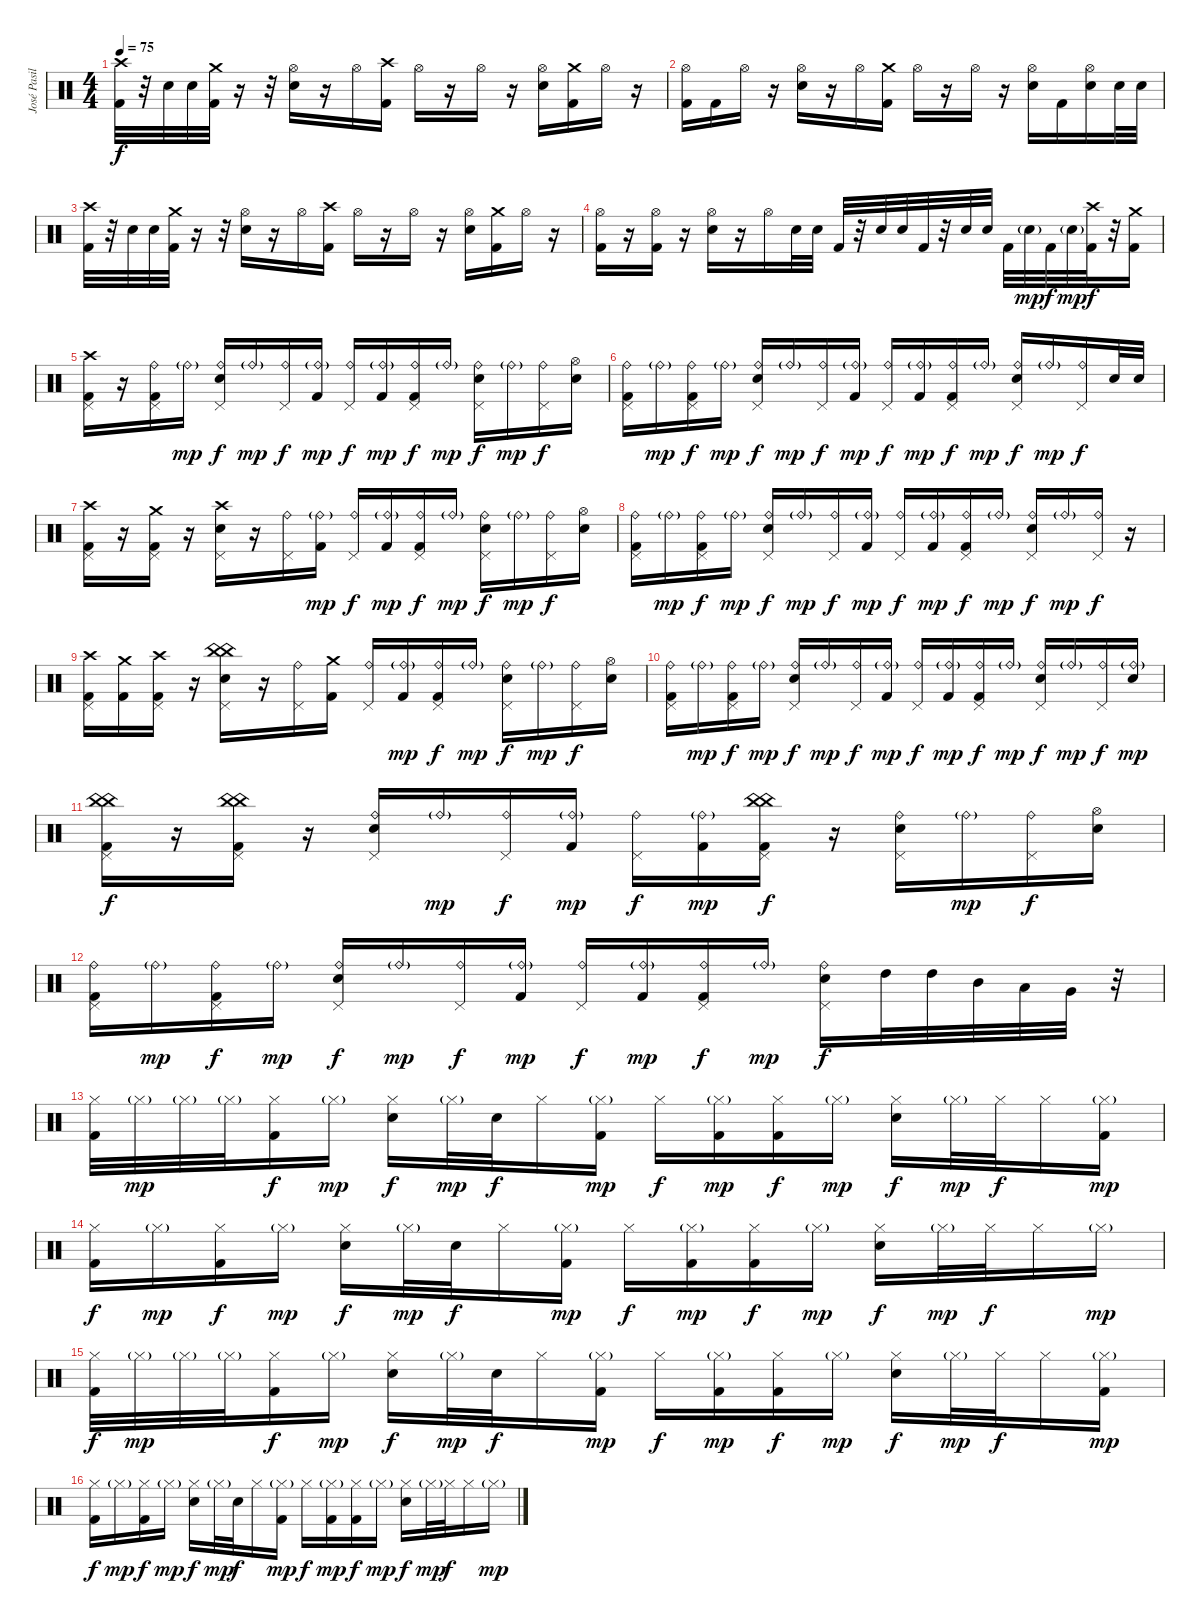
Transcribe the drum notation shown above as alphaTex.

\track ("José Pasillas" "José Pasil") {instrument percussion}
\staff {score}
\articulation defaults
\ts (4 4)
\tempo 75
\clef neutral
\ks c
("Crash high (hit)" "Kick (hit) 2").32{dy f} r.32 "Electric Snare (hit)".32 "Electric Snare (hit)".32 ("Crash medium (hit)" "Kick (hit) 2").32 r.16 r.32 ("Hi-Hat (open)" "Electric Snare (hit)").16 r.16 "Hi-Hat (open)".16 ("Crash high (hit)" "Kick (hit) 2").16 "Hi-Hat (open)".16 r.16 "Hi-Hat (open)".16 r.16 ("Hi-Hat (open)" "Electric Snare (hit)").16 ("Crash medium (hit)" "Kick (hit) 2").16 "Hi-Hat (open)".16 r.16 |
("Hi-Hat (open)" "Kick (hit) 2").16 "Kick (hit) 2".16 "Hi-Hat (open)".16 r.16 ("Hi-Hat (open)" "Electric Snare (hit)").16 r.16 "Hi-Hat (open)".16 ("Crash medium (hit)" "Kick (hit) 2").16 "Hi-Hat (open)".16 r.16 "Hi-Hat (open)".16 r.16 ("Hi-Hat (open)" "Electric Snare (hit)").16 "Kick (hit) 2".16 ("Hi-Hat (open)" "Electric Snare (hit)").16 "Electric Snare (hit)".32 "Electric Snare (hit)".32 |
("Crash high (hit)" "Kick (hit) 2").32 r.32 "Electric Snare (hit)".32 "Electric Snare (hit)".32 ("Crash medium (hit)" "Kick (hit) 2").32 r.16 r.32 ("Hi-Hat (open)" "Electric Snare (hit)").16 r.16 "Hi-Hat (open)".16 ("Crash high (hit)" "Kick (hit) 2").16 "Hi-Hat (open)".16 r.16 "Hi-Hat (open)".16 r.16 ("Hi-Hat (open)" "Electric Snare (hit)").16 ("Crash medium (hit)" "Kick (hit) 2").16 "Hi-Hat (open)".16 r.16 |
("Hi-Hat (open)" "Kick (hit) 2").16 r.16 ("Hi-Hat (open)" "Kick (hit) 2").16 r.16 ("Hi-Hat (open)" "Electric Snare (hit)").16 r.16 "Hi-Hat (open)".16 "Electric Snare (hit)".32 "Electric Snare (hit)".32 "Kick (hit) 2".32 r.32 "Electric Snare (hit)".32 "Electric Snare (hit)".32 "Kick (hit) 2".32 r.32 "Electric Snare (hit)".32 "Electric Snare (hit)".32 "Kick (hit) 2".32 "Electric Snare (hit)"{g}.32{dy mp} "Kick (hit) 2".32{dy f} "Electric Snare (hit)"{g}.32{dy mp} ("Crash high (hit)" "Kick (hit) 2").32{dy f} r.32 ("Crash medium (hit)" "Kick (hit) 2").16 |
("Crash high (hit)" "Kick (hit) 2" "Pedal Hi-Hat (hit)").16 r.16 ("Ride (bell)" "Kick (hit) 2" "Pedal Hi-Hat (hit)").16 "Ride (bell)"{g}.16{dy mp} ("Ride (bell)" "Electric Snare (hit)" "Pedal Hi-Hat (hit)").16{dy f} "Ride (bell)"{g}.16{dy mp} ("Ride (bell)" "Pedal Hi-Hat (hit)").16{dy f} ("Ride (bell)"{g} "Kick (hit) 2").16{dy mp} ("Ride (bell)" "Pedal Hi-Hat (hit)").16{dy f} ("Ride (bell)"{g} "Kick (hit) 2").16{dy mp} ("Ride (bell)" "Kick (hit) 2" "Pedal Hi-Hat (hit)").16{dy f} "Ride (bell)"{g}.16{dy mp} ("Ride (bell)" "Electric Snare (hit)" "Pedal Hi-Hat (hit)").16{dy f} "Ride (bell)"{g}.16{dy mp} ("Ride (bell)" "Pedal Hi-Hat (hit)").16{dy f} ("Hi-Hat (open)" "Electric Snare (hit)").16 |
("Ride (bell)" "Kick (hit) 2" "Pedal Hi-Hat (hit)").16 "Ride (bell)"{g}.16{dy mp} ("Ride (bell)" "Kick (hit) 2" "Pedal Hi-Hat (hit)").16{dy f} "Ride (bell)"{g}.16{dy mp} ("Ride (bell)" "Electric Snare (hit)" "Pedal Hi-Hat (hit)").16{dy f} "Ride (bell)"{g}.16{dy mp} ("Ride (bell)" "Pedal Hi-Hat (hit)").16{dy f} ("Ride (bell)"{g} "Kick (hit) 2").16{dy mp} ("Ride (bell)" "Pedal Hi-Hat (hit)").16{dy f} ("Ride (bell)"{g} "Kick (hit) 2").16{dy mp} ("Ride (bell)" "Kick (hit) 2" "Pedal Hi-Hat (hit)").16{dy f} "Ride (bell)"{g}.16{dy mp} ("Ride (bell)" "Electric Snare (hit)" "Pedal Hi-Hat (hit)").16{dy f} "Ride (bell)"{g}.16{dy mp} ("Ride (bell)" "Pedal Hi-Hat (hit)").16{dy f} "Electric Snare (hit)".32 "Electric Snare (hit)".32 |
("Crash high (hit)" "Kick (hit) 2" "Pedal Hi-Hat (hit)").16 r.16 ("Crash medium (hit)" "Kick (hit) 2" "Pedal Hi-Hat (hit)").16 r.16 ("Crash high (hit)" "Electric Snare (hit)" "Pedal Hi-Hat (hit)").16 r.16 ("Ride (bell)" "Pedal Hi-Hat (hit)").16 ("Ride (bell)"{g} "Kick (hit) 2").16{dy mp} ("Ride (bell)" "Pedal Hi-Hat (hit)").16{dy f} ("Ride (bell)"{g} "Kick (hit) 2").16{dy mp} ("Ride (bell)" "Kick (hit) 2" "Pedal Hi-Hat (hit)").16{dy f} "Ride (bell)"{g}.16{dy mp} ("Ride (bell)" "Electric Snare (hit)" "Pedal Hi-Hat (hit)").16{dy f} "Ride (bell)"{g}.16{dy mp} ("Ride (bell)" "Pedal Hi-Hat (hit)").16{dy f} ("Hi-Hat (open)" "Electric Snare (hit)").16 |
("Ride (bell)" "Kick (hit) 2" "Pedal Hi-Hat (hit)").16 "Ride (bell)"{g}.16{dy mp} ("Ride (bell)" "Kick (hit) 2" "Pedal Hi-Hat (hit)").16{dy f} "Ride (bell)"{g}.16{dy mp} ("Ride (bell)" "Electric Snare (hit)" "Pedal Hi-Hat (hit)").16{dy f} "Ride (bell)"{g}.16{dy mp} ("Ride (bell)" "Pedal Hi-Hat (hit)").16{dy f} ("Ride (bell)"{g} "Kick (hit) 2").16{dy mp} ("Ride (bell)" "Pedal Hi-Hat (hit)").16{dy f} ("Ride (bell)"{g} "Kick (hit) 2").16{dy mp} ("Ride (bell)" "Kick (hit) 2" "Pedal Hi-Hat (hit)").16{dy f} "Ride (bell)"{g}.16{dy mp} ("Ride (bell)" "Electric Snare (hit)" "Pedal Hi-Hat (hit)").16{dy f} "Ride (bell)"{g}.16{dy mp} ("Ride (bell)" "Pedal Hi-Hat (hit)").16{dy f} r.16 |
("Crash high (hit)" "Kick (hit) 2" "Pedal Hi-Hat (hit)").16 ("Crash medium (hit)" "Kick (hit) 2").16 ("Crash high (hit)" "Kick (hit) 2" "Pedal Hi-Hat (hit)").16 r.16 ("China (hit)" "China (hit)" "Electric Snare (hit)" "Pedal Hi-Hat (hit)").16 r.16 ("Ride (bell)" "Pedal Hi-Hat (hit)").16 ("Crash medium (hit)" "Kick (hit) 2").16 ("Ride (bell)" "Pedal Hi-Hat (hit)").16 ("Ride (bell)"{g} "Kick (hit) 2").16{dy mp} ("Ride (bell)" "Kick (hit) 2" "Pedal Hi-Hat (hit)").16{dy f} "Ride (bell)"{g}.16{dy mp} ("Ride (bell)" "Electric Snare (hit)" "Pedal Hi-Hat (hit)").16{dy f} "Ride (bell)"{g}.16{dy mp} ("Ride (bell)" "Pedal Hi-Hat (hit)").16{dy f} ("Hi-Hat (open)" "Electric Snare (hit)").16 |
("Ride (bell)" "Kick (hit) 2" "Pedal Hi-Hat (hit)").16 "Ride (bell)"{g}.16{dy mp} ("Ride (bell)" "Kick (hit) 2" "Pedal Hi-Hat (hit)").16{dy f} "Ride (bell)"{g}.16{dy mp} ("Ride (bell)" "Electric Snare (hit)" "Pedal Hi-Hat (hit)").16{dy f} "Ride (bell)"{g}.16{dy mp} ("Ride (bell)" "Pedal Hi-Hat (hit)").16{dy f} ("Ride (bell)"{g} "Kick (hit) 2").16{dy mp} ("Ride (bell)" "Pedal Hi-Hat (hit)").16{dy f} ("Ride (bell)"{g} "Kick (hit) 2").16{dy mp} ("Ride (bell)" "Kick (hit) 2" "Pedal Hi-Hat (hit)").16{dy f} "Ride (bell)"{g}.16{dy mp} ("Ride (bell)" "Electric Snare (hit)" "Pedal Hi-Hat (hit)").16{dy f} "Ride (bell)"{g}.16{dy mp} ("Ride (bell)" "Pedal Hi-Hat (hit)").16{dy f} ("Ride (bell)"{g} "Electric Snare (hit)").16{dy mp} |
("China (hit)" "China (hit)" "Kick (hit) 2" "Pedal Hi-Hat (hit)").16{dy f} r.16 ("China (hit)" "China (hit)" "Kick (hit) 2" "Pedal Hi-Hat (hit)").16 r.16 ("Ride (bell)" "Electric Snare (hit)" "Pedal Hi-Hat (hit)").16 "Ride (bell)"{g}.16{dy mp} ("Ride (bell)" "Pedal Hi-Hat (hit)").16{dy f} ("Ride (bell)"{g} "Kick (hit) 2").16{dy mp} ("Ride (bell)" "Pedal Hi-Hat (hit)").16{dy f} ("Ride (bell)"{g} "Kick (hit) 2").16{dy mp} ("China (hit)" "China (hit)" "Kick (hit) 2" "Pedal Hi-Hat (hit)").16{dy f} r.16 ("Ride (bell)" "Electric Snare (hit)" "Pedal Hi-Hat (hit)").16 "Ride (bell)"{g}.16{dy mp} ("Ride (bell)" "Pedal Hi-Hat (hit)").16{dy f} ("Hi-Hat (open)" "Electric Snare (hit)").16 |
("Ride (bell)" "Kick (hit) 2" "Pedal Hi-Hat (hit)").16 "Ride (bell)"{g}.16{dy mp} ("Ride (bell)" "Kick (hit) 2" "Pedal Hi-Hat (hit)").16{dy f} "Ride (bell)"{g}.16{dy mp} ("Ride (bell)" "Electric Snare (hit)" "Pedal Hi-Hat (hit)").16{dy f} "Ride (bell)"{g}.16{dy mp} ("Ride (bell)" "Pedal Hi-Hat (hit)").16{dy f} ("Ride (bell)"{g} "Kick (hit) 2").16{dy mp} ("Ride (bell)" "Pedal Hi-Hat (hit)").16{dy f} ("Ride (bell)"{g} "Kick (hit) 2").16{dy mp} ("Ride (bell)" "Kick (hit) 2" "Pedal Hi-Hat (hit)").16{dy f} "Ride (bell)"{g}.16{dy mp} ("Ride (bell)" "Electric Snare (hit)" "Pedal Hi-Hat (hit)").16{dy f} "High Tom (hit)".32 "High Tom (hit)".32 "Mid Tom (hit)".32 "Low Tom (hit)".32 "Very Low Tom (hit)".32 r.32 |
("Hi-Hat (closed)" "Kick (hit) 2").32 "Hi-Hat (closed)"{g}.32{dy mp} "Hi-Hat (closed)"{g}.32 "Hi-Hat (closed)"{g}.32 ("Hi-Hat (closed)" "Kick (hit) 2").16{dy f} "Hi-Hat (closed)"{g}.16{dy mp} ("Hi-Hat (closed)" "Electric Snare (hit)").16{dy f} "Hi-Hat (closed)"{g}.32{dy mp} "Electric Snare (hit)".32{dy f} "Hi-Hat (closed)".16 ("Hi-Hat (closed)"{g} "Kick (hit) 2").16{dy mp} "Hi-Hat (closed)".16{dy f} ("Hi-Hat (closed)"{g} "Kick (hit) 2").16{dy mp} ("Hi-Hat (closed)" "Kick (hit) 2").16{dy f} "Hi-Hat (closed)"{g}.16{dy mp} ("Hi-Hat (closed)" "Electric Snare (hit)").16{dy f} "Hi-Hat (closed)"{g}.32{dy mp} "Hi-Hat (closed)".32{dy f} "Hi-Hat (closed)".16 ("Hi-Hat (closed)"{g} "Kick (hit) 2").16{dy mp} |
("Hi-Hat (closed)" "Kick (hit) 2").16{dy f} "Hi-Hat (closed)"{g}.16{dy mp} ("Hi-Hat (closed)" "Kick (hit) 2").16{dy f} "Hi-Hat (closed)"{g}.16{dy mp} ("Hi-Hat (closed)" "Electric Snare (hit)").16{dy f} "Hi-Hat (closed)"{g}.32{dy mp} "Electric Snare (hit)".32{dy f} "Hi-Hat (closed)".16 ("Hi-Hat (closed)"{g} "Kick (hit) 2").16{dy mp} "Hi-Hat (closed)".16{dy f} ("Hi-Hat (closed)"{g} "Kick (hit) 2").16{dy mp} ("Hi-Hat (closed)" "Kick (hit) 2").16{dy f} "Hi-Hat (closed)"{g}.16{dy mp} ("Hi-Hat (closed)" "Electric Snare (hit)").16{dy f} "Hi-Hat (closed)"{g}.32{dy mp} "Hi-Hat (closed)".32{dy f} "Hi-Hat (closed)".16 "Hi-Hat (closed)"{g}.16{dy mp} |
("Hi-Hat (closed)" "Kick (hit) 2").32{dy f} "Hi-Hat (closed)"{g}.32{dy mp} "Hi-Hat (closed)"{g}.32 "Hi-Hat (closed)"{g}.32 ("Hi-Hat (closed)" "Kick (hit) 2").16{dy f} "Hi-Hat (closed)"{g}.16{dy mp} ("Hi-Hat (closed)" "Electric Snare (hit)").16{dy f} "Hi-Hat (closed)"{g}.32{dy mp} "Electric Snare (hit)".32{dy f} "Hi-Hat (closed)".16 ("Hi-Hat (closed)"{g} "Kick (hit) 2").16{dy mp} "Hi-Hat (closed)".16{dy f} ("Hi-Hat (closed)"{g} "Kick (hit) 2").16{dy mp} ("Hi-Hat (closed)" "Kick (hit) 2").16{dy f} "Hi-Hat (closed)"{g}.16{dy mp} ("Hi-Hat (closed)" "Electric Snare (hit)").16{dy f} "Hi-Hat (closed)"{g}.32{dy mp} "Hi-Hat (closed)".32{dy f} "Hi-Hat (closed)".16 ("Hi-Hat (closed)"{g} "Kick (hit) 2").16{dy mp} |
("Hi-Hat (closed)" "Kick (hit) 2").16{dy f} "Hi-Hat (closed)"{g}.16{dy mp} ("Hi-Hat (closed)" "Kick (hit) 2").16{dy f} "Hi-Hat (closed)"{g}.16{dy mp} ("Hi-Hat (closed)" "Electric Snare (hit)").16{dy f} "Hi-Hat (closed)"{g}.32{dy mp} "Electric Snare (hit)".32{dy f} "Hi-Hat (closed)".16 ("Hi-Hat (closed)"{g} "Kick (hit) 2").16{dy mp} "Hi-Hat (closed)".16{dy f} ("Hi-Hat (closed)"{g} "Kick (hit) 2").16{dy mp} ("Hi-Hat (closed)" "Kick (hit) 2").16{dy f} "Hi-Hat (closed)"{g}.16{dy mp} ("Hi-Hat (closed)" "Electric Snare (hit)").16{dy f} "Hi-Hat (closed)"{g}.32{dy mp} "Hi-Hat (closed)".32{dy f} "Hi-Hat (closed)".16 "Hi-Hat (closed)"{g}.16{dy mp}
